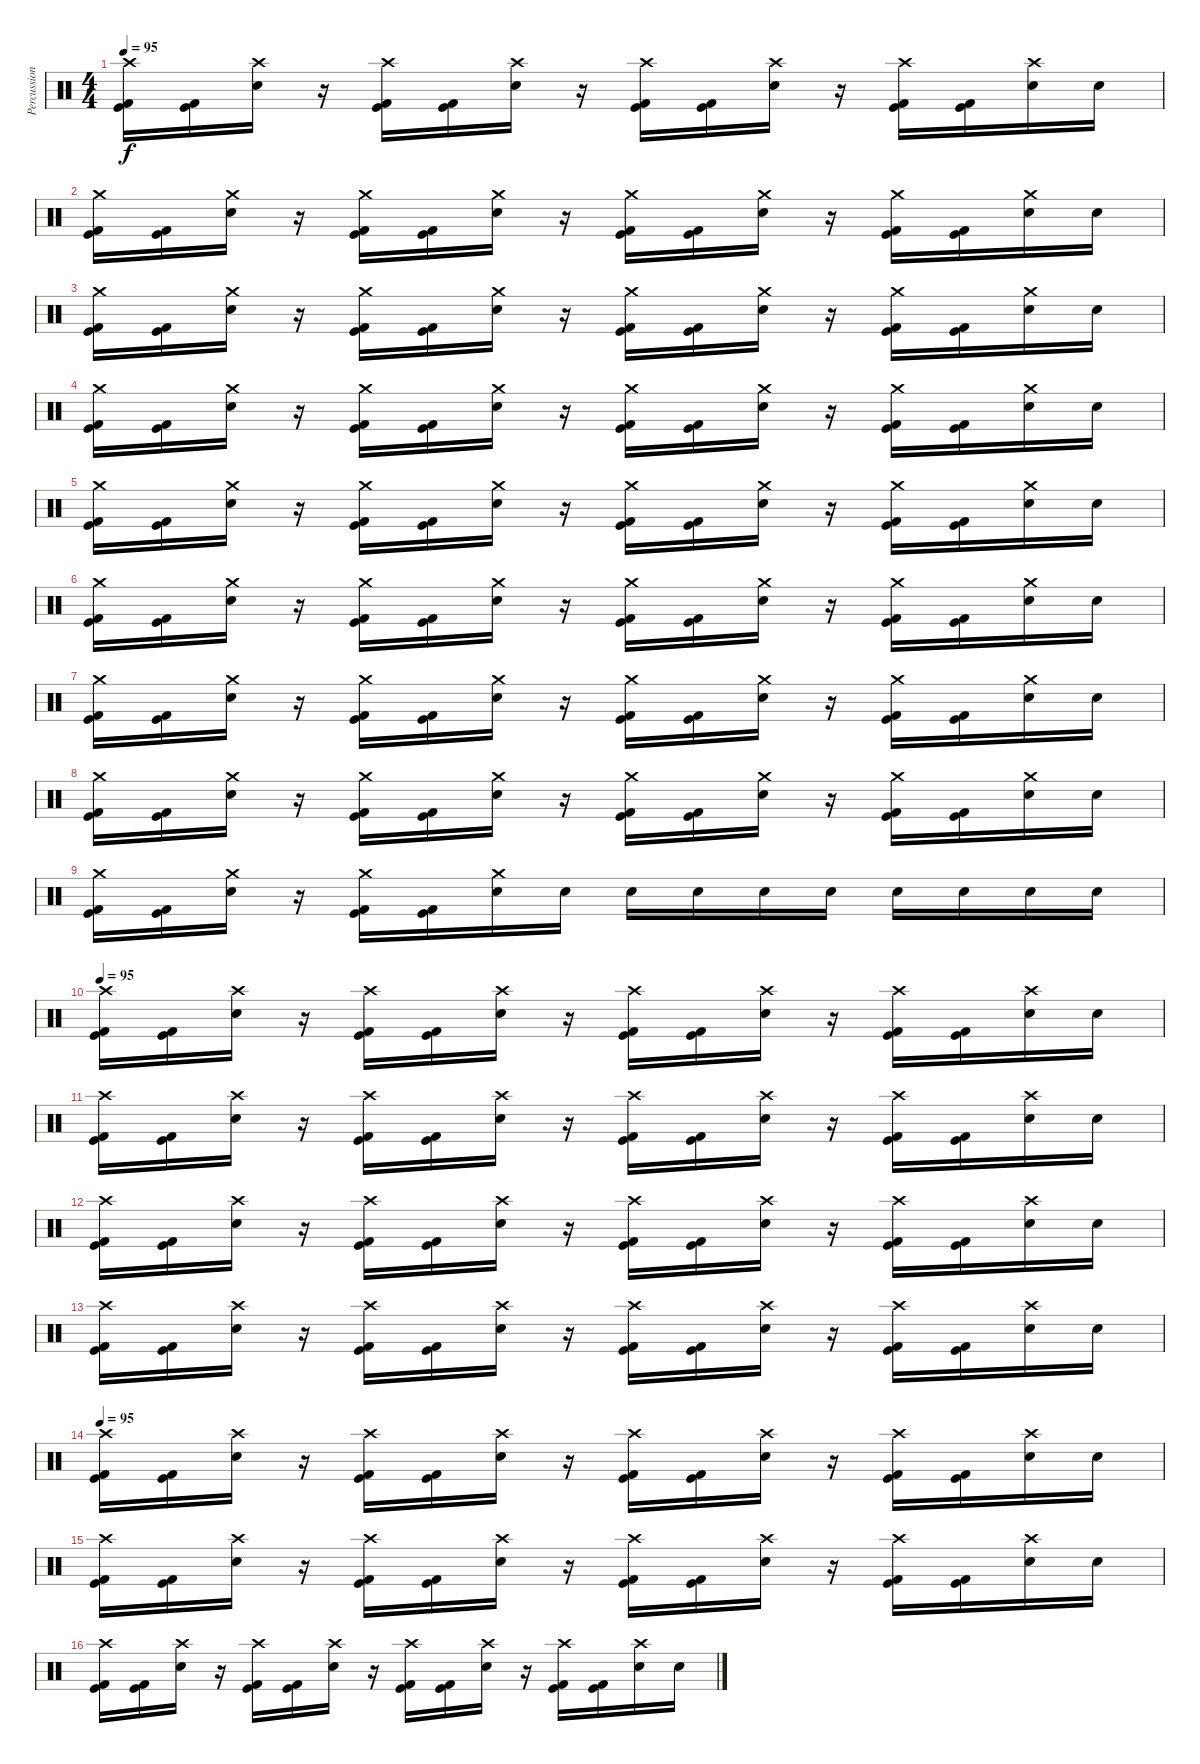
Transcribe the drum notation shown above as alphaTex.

\track ("Percussion" "Percussion") {instrument percussion}
\staff {score}
\articulation defaults
\ts (4 4)
\tempo 95
\clef neutral
\ks c
("Crash high (hit)" "Kick (hit)" "Kick (hit) 2").16{dy f} ("Kick (hit)" "Kick (hit) 2").16 ("Crash high (hit)" "Electric Snare (hit)").16 r.16 ("Crash high (hit)" "Kick (hit)" "Kick (hit) 2").16 ("Kick (hit)" "Kick (hit) 2").16 ("Crash high (hit)" "Electric Snare (hit)").16 r.16 ("Crash high (hit)" "Kick (hit)" "Kick (hit) 2").16 ("Kick (hit)" "Kick (hit) 2").16 ("Crash high (hit)" "Electric Snare (hit)").16 r.16 ("Crash high (hit)" "Kick (hit)" "Kick (hit) 2").16 ("Kick (hit)" "Kick (hit) 2").16 ("Crash high (hit)" "Electric Snare (hit)").16 "Snare (hit)".16 |
("Crash medium (hit)" "Kick (hit)" "Kick (hit) 2").16 ("Kick (hit)" "Kick (hit) 2").16 ("Crash medium (hit)" "Electric Snare (hit)").16 r.16 ("Crash medium (hit)" "Kick (hit)" "Kick (hit) 2").16 ("Kick (hit)" "Kick (hit) 2").16 ("Crash medium (hit)" "Electric Snare (hit)").16 r.16 ("Crash medium (hit)" "Kick (hit)" "Kick (hit) 2").16 ("Kick (hit)" "Kick (hit) 2").16 ("Crash medium (hit)" "Electric Snare (hit)").16 r.16 ("Crash medium (hit)" "Kick (hit)" "Kick (hit) 2").16 ("Kick (hit)" "Kick (hit) 2").16 ("Crash medium (hit)" "Electric Snare (hit)").16 "Snare (hit)".16 |
("Crash medium (hit)" "Kick (hit)" "Kick (hit) 2").16 ("Kick (hit)" "Kick (hit) 2").16 ("Crash medium (hit)" "Electric Snare (hit)").16 r.16 ("Crash medium (hit)" "Kick (hit)" "Kick (hit) 2").16 ("Kick (hit)" "Kick (hit) 2").16 ("Crash medium (hit)" "Electric Snare (hit)").16 r.16 ("Crash medium (hit)" "Kick (hit)" "Kick (hit) 2").16 ("Kick (hit)" "Kick (hit) 2").16 ("Crash medium (hit)" "Electric Snare (hit)").16 r.16 ("Crash medium (hit)" "Kick (hit)" "Kick (hit) 2").16 ("Kick (hit)" "Kick (hit) 2").16 ("Crash medium (hit)" "Electric Snare (hit)").16 "Snare (hit)".16 |
("Crash medium (hit)" "Kick (hit)" "Kick (hit) 2").16 ("Kick (hit)" "Kick (hit) 2").16 ("Crash medium (hit)" "Electric Snare (hit)").16 r.16 ("Crash medium (hit)" "Kick (hit)" "Kick (hit) 2").16 ("Kick (hit)" "Kick (hit) 2").16 ("Crash medium (hit)" "Electric Snare (hit)").16 r.16 ("Crash medium (hit)" "Kick (hit)" "Kick (hit) 2").16 ("Kick (hit)" "Kick (hit) 2").16 ("Crash medium (hit)" "Electric Snare (hit)").16 r.16 ("Crash medium (hit)" "Kick (hit)" "Kick (hit) 2").16 ("Kick (hit)" "Kick (hit) 2").16 ("Crash medium (hit)" "Electric Snare (hit)").16 "Snare (hit)".16 |
("Crash medium (hit)" "Kick (hit)" "Kick (hit) 2").16 ("Kick (hit)" "Kick (hit) 2").16 ("Crash medium (hit)" "Electric Snare (hit)").16 r.16 ("Crash medium (hit)" "Kick (hit)" "Kick (hit) 2").16 ("Kick (hit)" "Kick (hit) 2").16 ("Crash medium (hit)" "Electric Snare (hit)").16 r.16 ("Crash medium (hit)" "Kick (hit)" "Kick (hit) 2").16 ("Kick (hit)" "Kick (hit) 2").16 ("Crash medium (hit)" "Electric Snare (hit)").16 r.16 ("Crash medium (hit)" "Kick (hit)" "Kick (hit) 2").16 ("Kick (hit)" "Kick (hit) 2").16 ("Crash medium (hit)" "Electric Snare (hit)").16 "Snare (hit)".16 |
("Crash medium (hit)" "Kick (hit)" "Kick (hit) 2").16 ("Kick (hit)" "Kick (hit) 2").16 ("Crash medium (hit)" "Electric Snare (hit)").16 r.16 ("Crash medium (hit)" "Kick (hit)" "Kick (hit) 2").16 ("Kick (hit)" "Kick (hit) 2").16 ("Crash medium (hit)" "Electric Snare (hit)").16 r.16 ("Crash medium (hit)" "Kick (hit)" "Kick (hit) 2").16 ("Kick (hit)" "Kick (hit) 2").16 ("Crash medium (hit)" "Electric Snare (hit)").16 r.16 ("Crash medium (hit)" "Kick (hit)" "Kick (hit) 2").16 ("Kick (hit)" "Kick (hit) 2").16 ("Crash medium (hit)" "Electric Snare (hit)").16 "Snare (hit)".16 |
("Crash medium (hit)" "Kick (hit)" "Kick (hit) 2").16 ("Kick (hit)" "Kick (hit) 2").16 ("Crash medium (hit)" "Electric Snare (hit)").16 r.16 ("Crash medium (hit)" "Kick (hit)" "Kick (hit) 2").16 ("Kick (hit)" "Kick (hit) 2").16 ("Crash medium (hit)" "Electric Snare (hit)").16 r.16 ("Crash medium (hit)" "Kick (hit)" "Kick (hit) 2").16 ("Kick (hit)" "Kick (hit) 2").16 ("Crash medium (hit)" "Electric Snare (hit)").16 r.16 ("Crash medium (hit)" "Kick (hit)" "Kick (hit) 2").16 ("Kick (hit)" "Kick (hit) 2").16 ("Crash medium (hit)" "Electric Snare (hit)").16 "Snare (hit)".16 |
("Crash medium (hit)" "Kick (hit)" "Kick (hit) 2").16 ("Kick (hit)" "Kick (hit) 2").16 ("Crash medium (hit)" "Electric Snare (hit)").16 r.16 ("Crash medium (hit)" "Kick (hit)" "Kick (hit) 2").16 ("Kick (hit)" "Kick (hit) 2").16 ("Crash medium (hit)" "Electric Snare (hit)").16 r.16 ("Crash medium (hit)" "Kick (hit)" "Kick (hit) 2").16 ("Kick (hit)" "Kick (hit) 2").16 ("Crash medium (hit)" "Electric Snare (hit)").16 r.16 ("Crash medium (hit)" "Kick (hit)" "Kick (hit) 2").16 ("Kick (hit)" "Kick (hit) 2").16 ("Crash medium (hit)" "Electric Snare (hit)").16 "Snare (hit)".16 |
("Crash medium (hit)" "Kick (hit)" "Kick (hit) 2").16 ("Kick (hit)" "Kick (hit) 2").16 ("Crash medium (hit)" "Electric Snare (hit)").16 r.16 ("Crash medium (hit)" "Kick (hit)" "Kick (hit) 2").16 ("Kick (hit)" "Kick (hit) 2").16 ("Crash medium (hit)" "Electric Snare (hit)").16 "Electric Snare (hit)".16 "Electric Snare (hit)".16 "Electric Snare (hit)".16 "Electric Snare (hit)".16 "Electric Snare (hit)".16 "Electric Snare (hit)".16 "Electric Snare (hit)".16 "Electric Snare (hit)".16 "Electric Snare (hit)".16 |
\tempo 95
("Crash high (hit)" "Kick (hit)" "Kick (hit) 2").16 ("Kick (hit)" "Kick (hit) 2").16 ("Crash high (hit)" "Electric Snare (hit)").16 r.16 ("Crash high (hit)" "Kick (hit)" "Kick (hit) 2").16 ("Kick (hit)" "Kick (hit) 2").16 ("Crash high (hit)" "Electric Snare (hit)").16 r.16 ("Crash high (hit)" "Kick (hit)" "Kick (hit) 2").16 ("Kick (hit)" "Kick (hit) 2").16 ("Crash high (hit)" "Electric Snare (hit)").16 r.16 ("Crash high (hit)" "Kick (hit)" "Kick (hit) 2").16 ("Kick (hit)" "Kick (hit) 2").16 ("Crash high (hit)" "Electric Snare (hit)").16 "Snare (hit)".16 |
("Crash high (hit)" "Kick (hit)" "Kick (hit) 2").16 ("Kick (hit)" "Kick (hit) 2").16 ("Crash high (hit)" "Electric Snare (hit)").16 r.16 ("Crash high (hit)" "Kick (hit)" "Kick (hit) 2").16 ("Kick (hit)" "Kick (hit) 2").16 ("Crash high (hit)" "Electric Snare (hit)").16 r.16 ("Crash high (hit)" "Kick (hit)" "Kick (hit) 2").16 ("Kick (hit)" "Kick (hit) 2").16 ("Crash high (hit)" "Electric Snare (hit)").16 r.16 ("Crash high (hit)" "Kick (hit)" "Kick (hit) 2").16 ("Kick (hit)" "Kick (hit) 2").16 ("Crash high (hit)" "Electric Snare (hit)").16 "Snare (hit)".16 |
("Crash high (hit)" "Kick (hit)" "Kick (hit) 2").16 ("Kick (hit)" "Kick (hit) 2").16 ("Crash high (hit)" "Electric Snare (hit)").16 r.16 ("Crash high (hit)" "Kick (hit)" "Kick (hit) 2").16 ("Kick (hit)" "Kick (hit) 2").16 ("Crash high (hit)" "Electric Snare (hit)").16 r.16 ("Crash high (hit)" "Kick (hit)" "Kick (hit) 2").16 ("Kick (hit)" "Kick (hit) 2").16 ("Crash high (hit)" "Electric Snare (hit)").16 r.16 ("Crash high (hit)" "Kick (hit)" "Kick (hit) 2").16 ("Kick (hit)" "Kick (hit) 2").16 ("Crash high (hit)" "Electric Snare (hit)").16 "Snare (hit)".16 |
("Crash high (hit)" "Kick (hit)" "Kick (hit) 2").16 ("Kick (hit)" "Kick (hit) 2").16 ("Crash high (hit)" "Electric Snare (hit)").16 r.16 ("Crash high (hit)" "Kick (hit)" "Kick (hit) 2").16 ("Kick (hit)" "Kick (hit) 2").16 ("Crash high (hit)" "Electric Snare (hit)").16 r.16 ("Crash high (hit)" "Kick (hit)" "Kick (hit) 2").16 ("Kick (hit)" "Kick (hit) 2").16 ("Crash high (hit)" "Electric Snare (hit)").16 r.16 ("Crash high (hit)" "Kick (hit)" "Kick (hit) 2").16 ("Kick (hit)" "Kick (hit) 2").16 ("Crash high (hit)" "Electric Snare (hit)").16 "Snare (hit)".16 |
\tempo 95
("Crash high (hit)" "Kick (hit)" "Kick (hit) 2").16 ("Kick (hit)" "Kick (hit) 2").16 ("Crash high (hit)" "Electric Snare (hit)").16 r.16 ("Crash high (hit)" "Kick (hit)" "Kick (hit) 2").16 ("Kick (hit)" "Kick (hit) 2").16 ("Crash high (hit)" "Electric Snare (hit)").16 r.16 ("Crash high (hit)" "Kick (hit)" "Kick (hit) 2").16 ("Kick (hit)" "Kick (hit) 2").16 ("Crash high (hit)" "Electric Snare (hit)").16 r.16 ("Crash high (hit)" "Kick (hit)" "Kick (hit) 2").16 ("Kick (hit)" "Kick (hit) 2").16 ("Crash high (hit)" "Electric Snare (hit)").16 "Snare (hit)".16 |
("Crash high (hit)" "Kick (hit)" "Kick (hit) 2").16 ("Kick (hit)" "Kick (hit) 2").16 ("Crash high (hit)" "Electric Snare (hit)").16 r.16 ("Crash high (hit)" "Kick (hit)" "Kick (hit) 2").16 ("Kick (hit)" "Kick (hit) 2").16 ("Crash high (hit)" "Electric Snare (hit)").16 r.16 ("Crash high (hit)" "Kick (hit)" "Kick (hit) 2").16 ("Kick (hit)" "Kick (hit) 2").16 ("Crash high (hit)" "Electric Snare (hit)").16 r.16 ("Crash high (hit)" "Kick (hit)" "Kick (hit) 2").16 ("Kick (hit)" "Kick (hit) 2").16 ("Crash high (hit)" "Electric Snare (hit)").16 "Snare (hit)".16 |
("Crash high (hit)" "Kick (hit)" "Kick (hit) 2").16 ("Kick (hit)" "Kick (hit) 2").16 ("Crash high (hit)" "Electric Snare (hit)").16 r.16 ("Crash high (hit)" "Kick (hit)" "Kick (hit) 2").16 ("Kick (hit)" "Kick (hit) 2").16 ("Crash high (hit)" "Electric Snare (hit)").16 r.16 ("Crash high (hit)" "Kick (hit)" "Kick (hit) 2").16 ("Kick (hit)" "Kick (hit) 2").16 ("Crash high (hit)" "Electric Snare (hit)").16 r.16 ("Crash high (hit)" "Kick (hit)" "Kick (hit) 2").16 ("Kick (hit)" "Kick (hit) 2").16 ("Crash high (hit)" "Electric Snare (hit)").16 "Snare (hit)".16
